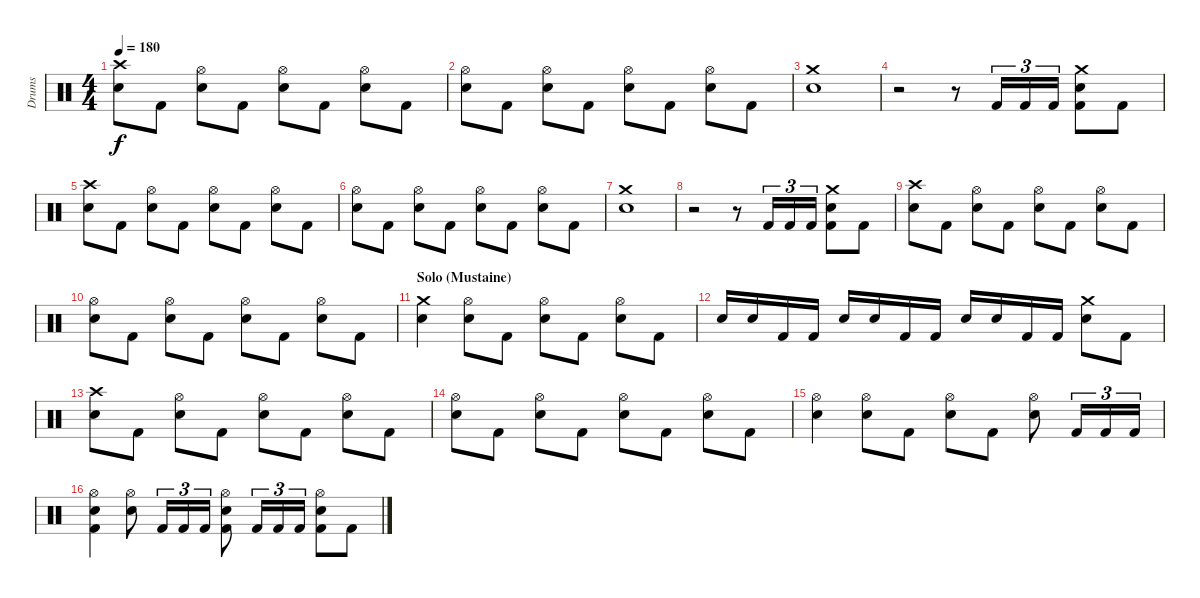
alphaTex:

\bracketExtendMode groupsimilarinstruments
\track ("Drumkit" "Drums") {solo instrument percussion}
\staff {score}
\articulation defaults
\ts (4 4)
\tempo 180
\clef neutral
\ks c
("Crash high (hit)" "Snare (hit) 2").8{dy f} "Kick (hit) 2".8 ("Hi-Hat (open)" "Snare (hit) 2").8 "Kick (hit) 2".8 ("Hi-Hat (open)" "Snare (hit) 2").8 "Kick (hit) 2".8 ("Hi-Hat (open)" "Snare (hit) 2").8 "Kick (hit) 2".8 |
("Hi-Hat (open)" "Snare (hit) 2").8 "Kick (hit) 2".8 ("Hi-Hat (open)" "Snare (hit) 2").8 "Kick (hit) 2".8 ("Hi-Hat (open)" "Snare (hit) 2").8 "Kick (hit) 2".8 ("Hi-Hat (open)" "Snare (hit) 2").8 "Kick (hit) 2".8 |
("Crash medium (hit)" "Snare (hit) 2").1 |
r.2 r.8 "Kick (hit) 2".16{tu (3 2)} "Kick (hit) 2".16{tu (3 2)} "Kick (hit) 2".16{tu (3 2)} ("Crash medium (hit)" "Snare (hit) 2" "Kick (hit) 2").8 "Kick (hit) 2".8 |
("Crash high (hit)" "Snare (hit) 2").8 "Kick (hit) 2".8 ("Hi-Hat (open)" "Snare (hit) 2").8 "Kick (hit) 2".8 ("Hi-Hat (open)" "Snare (hit) 2").8 "Kick (hit) 2".8 ("Hi-Hat (open)" "Snare (hit) 2").8 "Kick (hit) 2".8 |
("Hi-Hat (open)" "Snare (hit) 2").8 "Kick (hit) 2".8 ("Hi-Hat (open)" "Snare (hit) 2").8 "Kick (hit) 2".8 ("Hi-Hat (open)" "Snare (hit) 2").8 "Kick (hit) 2".8 ("Hi-Hat (open)" "Snare (hit) 2").8 "Kick (hit) 2".8 |
("Crash medium (hit)" "Snare (hit) 2").1 |
r.2 r.8 "Kick (hit) 2".16{tu (3 2)} "Kick (hit) 2".16{tu (3 2)} "Kick (hit) 2".16{tu (3 2)} ("Crash medium (hit)" "Snare (hit) 2" "Kick (hit) 2").8 "Kick (hit) 2".8 |
("Crash high (hit)" "Snare (hit) 2").8 "Kick (hit) 2".8 ("Hi-Hat (open)" "Snare (hit) 2").8 "Kick (hit) 2".8 ("Hi-Hat (open)" "Snare (hit) 2").8 "Kick (hit) 2".8 ("Hi-Hat (open)" "Snare (hit) 2").8 "Kick (hit) 2".8 |
("Hi-Hat (open)" "Snare (hit) 2").8 "Kick (hit) 2".8 ("Hi-Hat (open)" "Snare (hit) 2").8 "Kick (hit) 2".8 ("Hi-Hat (open)" "Snare (hit) 2").8 "Kick (hit) 2".8 ("Hi-Hat (open)" "Snare (hit) 2").8 "Kick (hit) 2".8 |
\section ("" "Solo (Mustaine)")
("Crash medium (hit)" "Snare (hit) 2").4 ("Hi-Hat (open)" "Snare (hit) 2").8 "Kick (hit) 2".8 ("Hi-Hat (open)" "Snare (hit) 2").8 "Kick (hit) 2".8 ("Hi-Hat (open)" "Snare (hit) 2").8 "Kick (hit) 2".8 |
"Snare (hit) 2".16 "Snare (hit) 2".16 "Kick (hit) 2".16 "Kick (hit) 2".16 "Snare (hit) 2".16 "Snare (hit) 2".16 "Kick (hit) 2".16 "Kick (hit) 2".16 "Snare (hit) 2".16 "Snare (hit) 2".16 "Kick (hit) 2".16 "Kick (hit) 2".16 ("Crash medium (hit)" "Snare (hit) 2").8 "Kick (hit) 2".8 |
("Crash high (hit)" "Snare (hit) 2").8 "Kick (hit) 2".8 ("Hi-Hat (open)" "Snare (hit) 2").8 "Kick (hit) 2".8 ("Hi-Hat (open)" "Snare (hit) 2").8 "Kick (hit) 2".8 ("Hi-Hat (open)" "Snare (hit) 2").8 "Kick (hit) 2".8 |
("Hi-Hat (open)" "Snare (hit) 2").8 "Kick (hit) 2".8 ("Hi-Hat (open)" "Snare (hit) 2").8 "Kick (hit) 2".8 ("Hi-Hat (open)" "Snare (hit) 2").8 "Kick (hit) 2".8 ("Hi-Hat (open)" "Snare (hit) 2").8 "Kick (hit) 2".8 |
("Hi-Hat (open)" "Snare (hit) 2").4 ("Hi-Hat (open)" "Snare (hit) 2").8 "Kick (hit) 2".8 ("Hi-Hat (open)" "Snare (hit) 2").8 "Kick (hit) 2".8 ("Hi-Hat (open)" "Snare (hit) 2").8 "Kick (hit) 2".16{tu (3 2)} "Kick (hit) 2".16{tu (3 2)} "Kick (hit) 2".16{tu (3 2)} |
("Hi-Hat (open)" "Snare (hit) 2" "Kick (hit) 2").4 ("Hi-Hat (open)" "Snare (hit) 2").8 "Kick (hit) 2".16{tu (3 2)} "Kick (hit) 2".16{tu (3 2)} "Kick (hit) 2".16{tu (3 2)} ("Hi-Hat (open)" "Snare (hit) 2" "Kick (hit) 2").8 "Kick (hit) 2".16{tu (3 2)} "Kick (hit) 2".16{tu (3 2)} "Kick (hit) 2".16{tu (3 2)} ("Hi-Hat (open)" "Snare (hit) 2" "Kick (hit) 2").8 "Kick (hit) 2".8
